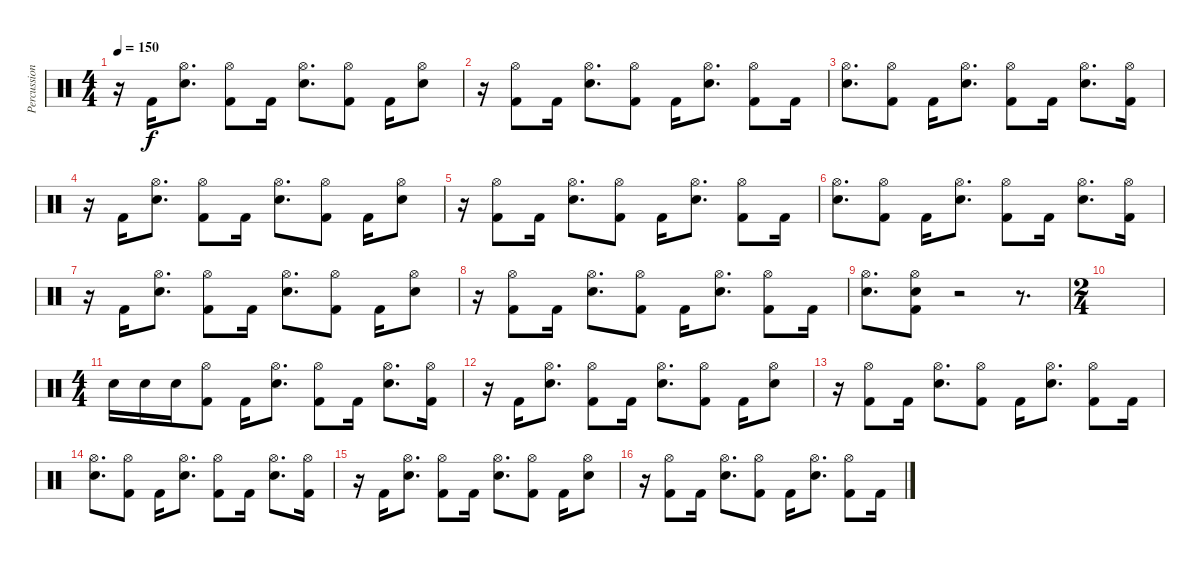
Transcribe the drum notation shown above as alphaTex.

\track ("Percussion" "Percussion") {instrument percussion}
\staff {score}
\articulation defaults
\ts (4 4)
\tempo 150
\clef neutral
\ks c
r.16{dy f} "Kick (hit) 2".16 ("Hi-Hat (open)" "Electric Snare (hit)").8{d} ("Hi-Hat (open)" "Kick (hit) 2").8 "Kick (hit) 2".16 ("Hi-Hat (open)" "Electric Snare (hit)").8{d} ("Hi-Hat (open)" "Kick (hit) 2").8 "Kick (hit) 2".16 ("Hi-Hat (open)" "Electric Snare (hit)").8 |
r.16 ("Hi-Hat (open)" "Kick (hit) 2").8 "Kick (hit) 2".16 ("Hi-Hat (open)" "Electric Snare (hit)").8{d} ("Hi-Hat (open)" "Kick (hit) 2").8 "Kick (hit) 2".16 ("Hi-Hat (open)" "Electric Snare (hit)").8{d} ("Hi-Hat (open)" "Kick (hit) 2").8 "Kick (hit) 2".16 |
("Hi-Hat (open)" "Electric Snare (hit)").8{d} ("Hi-Hat (open)" "Kick (hit) 2").8 "Kick (hit) 2".16 ("Hi-Hat (open)" "Electric Snare (hit)").8{d} ("Hi-Hat (open)" "Kick (hit) 2").8 "Kick (hit) 2".16 ("Hi-Hat (open)" "Electric Snare (hit)").8{d} ("Hi-Hat (open)" "Kick (hit) 2").16 |
r.16 "Kick (hit) 2".16 ("Hi-Hat (open)" "Electric Snare (hit)").8{d} ("Hi-Hat (open)" "Kick (hit) 2").8 "Kick (hit) 2".16 ("Hi-Hat (open)" "Electric Snare (hit)").8{d} ("Hi-Hat (open)" "Kick (hit) 2").8 "Kick (hit) 2".16 ("Hi-Hat (open)" "Electric Snare (hit)").8 |
r.16 ("Hi-Hat (open)" "Kick (hit) 2").8 "Kick (hit) 2".16 ("Hi-Hat (open)" "Electric Snare (hit)").8{d} ("Hi-Hat (open)" "Kick (hit) 2").8 "Kick (hit) 2".16 ("Hi-Hat (open)" "Electric Snare (hit)").8{d} ("Hi-Hat (open)" "Kick (hit) 2").8 "Kick (hit) 2".16 |
("Hi-Hat (open)" "Electric Snare (hit)").8{d} ("Hi-Hat (open)" "Kick (hit) 2").8 "Kick (hit) 2".16 ("Hi-Hat (open)" "Electric Snare (hit)").8{d} ("Hi-Hat (open)" "Kick (hit) 2").8 "Kick (hit) 2".16 ("Hi-Hat (open)" "Electric Snare (hit)").8{d} ("Hi-Hat (open)" "Kick (hit) 2").16 |
r.16 "Kick (hit) 2".16 ("Hi-Hat (open)" "Electric Snare (hit)").8{d} ("Hi-Hat (open)" "Kick (hit) 2").8 "Kick (hit) 2".16 ("Hi-Hat (open)" "Electric Snare (hit)").8{d} ("Hi-Hat (open)" "Kick (hit) 2").8 "Kick (hit) 2".16 ("Hi-Hat (open)" "Electric Snare (hit)").8 |
r.16 ("Hi-Hat (open)" "Kick (hit) 2").8 "Kick (hit) 2".16 ("Hi-Hat (open)" "Electric Snare (hit)").8{d} ("Hi-Hat (open)" "Kick (hit) 2").8 "Kick (hit) 2".16 ("Hi-Hat (open)" "Electric Snare (hit)").8{d} ("Hi-Hat (open)" "Kick (hit) 2").8 "Kick (hit) 2".16 |
("Hi-Hat (open)" "Electric Snare (hit)").8{d} ("Hi-Hat (open)" "Electric Snare (hit)" "Kick (hit) 2").8 r.2 r.8{d} |
\ts (2 4)
|
\ts (4 4)
"Electric Snare (hit)".16 "Electric Snare (hit)".16 "Electric Snare (hit)".16 ("Hi-Hat (open)" "Kick (hit) 2").8 "Kick (hit) 2".16 ("Hi-Hat (open)" "Electric Snare (hit)").8{d} ("Hi-Hat (open)" "Kick (hit) 2").8 "Kick (hit) 2".16 ("Hi-Hat (open)" "Electric Snare (hit)").8{d} ("Hi-Hat (open)" "Kick (hit) 2").16 |
r.16 "Kick (hit) 2".16 ("Hi-Hat (open)" "Electric Snare (hit)").8{d} ("Hi-Hat (open)" "Kick (hit) 2").8 "Kick (hit) 2".16 ("Hi-Hat (open)" "Electric Snare (hit)").8{d} ("Hi-Hat (open)" "Kick (hit) 2").8 "Kick (hit) 2".16 ("Hi-Hat (open)" "Electric Snare (hit)").8 |
r.16 ("Hi-Hat (open)" "Kick (hit) 2").8 "Kick (hit) 2".16 ("Hi-Hat (open)" "Electric Snare (hit)").8{d} ("Hi-Hat (open)" "Kick (hit) 2").8 "Kick (hit) 2".16 ("Hi-Hat (open)" "Electric Snare (hit)").8{d} ("Hi-Hat (open)" "Kick (hit) 2").8 "Kick (hit) 2".16 |
("Hi-Hat (open)" "Electric Snare (hit)").8{d} ("Hi-Hat (open)" "Kick (hit) 2").8 "Kick (hit) 2".16 ("Hi-Hat (open)" "Electric Snare (hit)").8{d} ("Hi-Hat (open)" "Kick (hit) 2").8 "Kick (hit) 2".16 ("Hi-Hat (open)" "Electric Snare (hit)").8{d} ("Hi-Hat (open)" "Kick (hit) 2").16 |
r.16 "Kick (hit) 2".16 ("Hi-Hat (open)" "Electric Snare (hit)").8{d} ("Hi-Hat (open)" "Kick (hit) 2").8 "Kick (hit) 2".16 ("Hi-Hat (open)" "Electric Snare (hit)").8{d} ("Hi-Hat (open)" "Kick (hit) 2").8 "Kick (hit) 2".16 ("Hi-Hat (open)" "Electric Snare (hit)").8 |
r.16 ("Hi-Hat (open)" "Kick (hit) 2").8 "Kick (hit) 2".16 ("Hi-Hat (open)" "Electric Snare (hit)").8{d} ("Hi-Hat (open)" "Kick (hit) 2").8 "Kick (hit) 2".16 ("Hi-Hat (open)" "Electric Snare (hit)").8{d} ("Hi-Hat (open)" "Kick (hit) 2").8 "Kick (hit) 2".16
